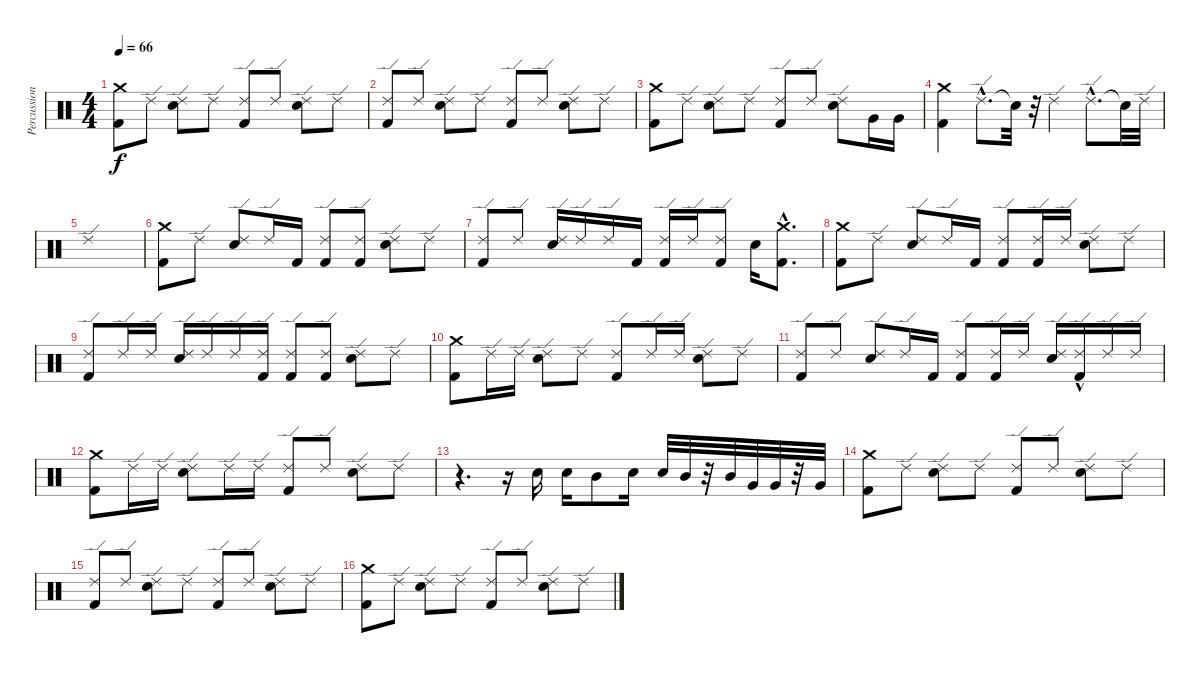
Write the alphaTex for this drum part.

\track ("Percussioni" "Percussion") {instrument percussion}
\staff {score}
\articulation defaults
\ts (4 4)
\tempo 66
\clef neutral
\ks c
("Kick (hit) 2" "Crash medium (hit)").8{dy f} "Ride (edge) 2".8 ("Snare (hit) 2" "Ride (edge) 2").8 "Ride (edge) 2".8 ("Kick (hit) 2" "Ride (edge) 2").8 "Ride (edge) 2".8 ("Snare (hit) 2" "Ride (edge) 2").8 "Ride (edge) 2".8 |
("Ride (edge) 2" "Kick (hit) 2").8 "Ride (edge) 2".8 ("Ride (edge) 2" "Snare (hit) 2").8 "Ride (edge) 2".8 ("Ride (edge) 2" "Kick (hit) 2").8 "Ride (edge) 2".8 ("Ride (edge) 2" "Snare (hit) 2").8 "Ride (edge) 2".8 |
("Crash medium (hit)" "Kick (hit) 2").8 "Ride (edge) 2".8 ("Ride (edge) 2" "Snare (hit) 2").8 "Ride (edge) 2".8 ("Ride (edge) 2" "Kick (hit) 2").8 "Ride (edge) 2".8 ("Ride (edge) 2" "Snare (hit) 2").8 "Very Low Tom (hit)".16 "Very Low Tom (hit)".16 |
("Kick (hit) 2" "Crash medium (hit)").4 "Ride (edge) 2"{hac}.8{d} "Snare (hit)"{t}.32 r.32 "Ride (edge) 2".4 "Ride (edge) 2"{hac}.8{d} "Snare (hit)"{t}.32 "Ride (edge) 2".32 |
"Ride (edge) 2".1 |
("Crash medium (hit)" "Kick (hit) 2").8 "Ride (edge) 2".8 ("Ride (edge) 2" "Snare (hit) 2").8 "Ride (edge) 2".16 "Kick (hit) 2".16 ("Ride (edge) 2" "Kick (hit) 2").8 ("Ride (edge) 2" "Kick (hit) 2").8 ("Ride (edge) 2" "Snare (hit) 2").8 "Ride (edge) 2".8 |
("Ride (edge) 2" "Kick (hit) 2").8 "Ride (edge) 2".8 ("Ride (edge) 2" "Snare (hit) 2").16 "Ride (edge) 2".16 "Ride (edge) 2".16 "Kick (hit) 2".16 ("Ride (edge) 2" "Kick (hit) 2").16 "Ride (edge) 2".16 ("Ride (edge) 2" "Kick (hit) 2").8 "Snare (hit) 2".16 ("Crash medium (hit)" "Kick (hit) 2"{hac}).8{d} |
("Crash medium (hit)" "Kick (hit) 2").8 "Ride (edge) 2".8 ("Snare (hit) 2" "Ride (edge) 2").8 "Ride (edge) 2".16 "Kick (hit) 2".16 ("Ride (edge) 2" "Kick (hit) 2").8 ("Ride (edge) 2" "Kick (hit) 2").16 "Ride (edge) 2".16 ("Snare (hit) 2" "Ride (edge) 2").8 "Ride (edge) 2".8 |
("Ride (edge) 2" "Kick (hit) 2").8 "Ride (edge) 2".16 "Ride (edge) 2".16 ("Ride (edge) 2" "Snare (hit) 2").16 "Ride (edge) 2".16 "Ride (edge) 2".16 ("Ride (edge) 2" "Kick (hit) 2").16 ("Ride (edge) 2" "Kick (hit) 2").8 ("Ride (edge) 2" "Kick (hit) 2").8 ("Ride (edge) 2" "Snare (hit) 2").8 "Ride (edge) 2".8 |
("Crash medium (hit)" "Kick (hit) 2").8 "Ride (edge) 2".16 "Ride (edge) 2".16 ("Ride (edge) 2" "Snare (hit) 2").8 "Ride (edge) 2".8 ("Ride (edge) 2" "Kick (hit) 2").8 "Ride (edge) 2".16 "Ride (edge) 2".16 ("Ride (edge) 2" "Snare (hit) 2").8 "Ride (edge) 2".8 |
("Kick (hit) 2" "Ride (edge) 2").8 "Ride (edge) 2".8 ("Snare (hit) 2" "Ride (edge) 2").8 "Ride (edge) 2".16 "Kick (hit) 2".16 ("Kick (hit) 2" "Ride (edge) 2").8 ("Kick (hit) 2" "Ride (edge) 2").16 "Ride (edge) 2".16 ("Snare (hit) 2" "Ride (edge) 2").16 ("Kick (hit) 2"{hac} "Ride (edge) 2").16 "Ride (edge) 2".16 "Ride (edge) 2".16 |
("Crash medium (hit)" "Kick (hit) 2").8 "Ride (edge) 2".16 "Ride (edge) 2".16 ("Snare (hit) 2" "Ride (edge) 2").8 "Ride (edge) 2".16 "Ride (edge) 2".16 ("Ride (edge) 2" "Kick (hit) 2").8 "Ride (edge) 2".8 ("Snare (hit) 2" "Ride (edge) 2").8 "Ride (edge) 2".8 |
r.4{d} r.16 "Snare (hit) 2".16 "Snare (hit) 2".16 "Mid Tom (hit)".8 "Snare (hit) 2".16 "Snare (hit) 2".32 "Mid Tom (hit)".32 r.32 "Mid Tom (hit)".32 "Very Low Tom (hit)".32 "Very Low Tom (hit)".32 r.32 "Very Low Tom (hit)".32 |
("Kick (hit) 2" "Crash medium (hit)").8 "Ride (edge) 2".8 ("Snare (hit) 2" "Ride (edge) 2").8 "Ride (edge) 2".8 ("Kick (hit) 2" "Ride (edge) 2").8 "Ride (edge) 2".8 ("Snare (hit) 2" "Ride (edge) 2").8 "Ride (edge) 2".8 |
("Ride (edge) 2" "Kick (hit) 2").8 "Ride (edge) 2".8 ("Ride (edge) 2" "Snare (hit) 2").8 "Ride (edge) 2".8 ("Ride (edge) 2" "Kick (hit) 2").8 "Ride (edge) 2".8 ("Ride (edge) 2" "Snare (hit) 2").8 "Ride (edge) 2".8 |
("Crash medium (hit)" "Kick (hit) 2").8 "Ride (edge) 2".8 ("Ride (edge) 2" "Snare (hit) 2").8 "Ride (edge) 2".8 ("Ride (edge) 2" "Kick (hit) 2").8 "Ride (edge) 2".8 ("Ride (edge) 2" "Snare (hit) 2").8 "Ride (edge) 2".8
